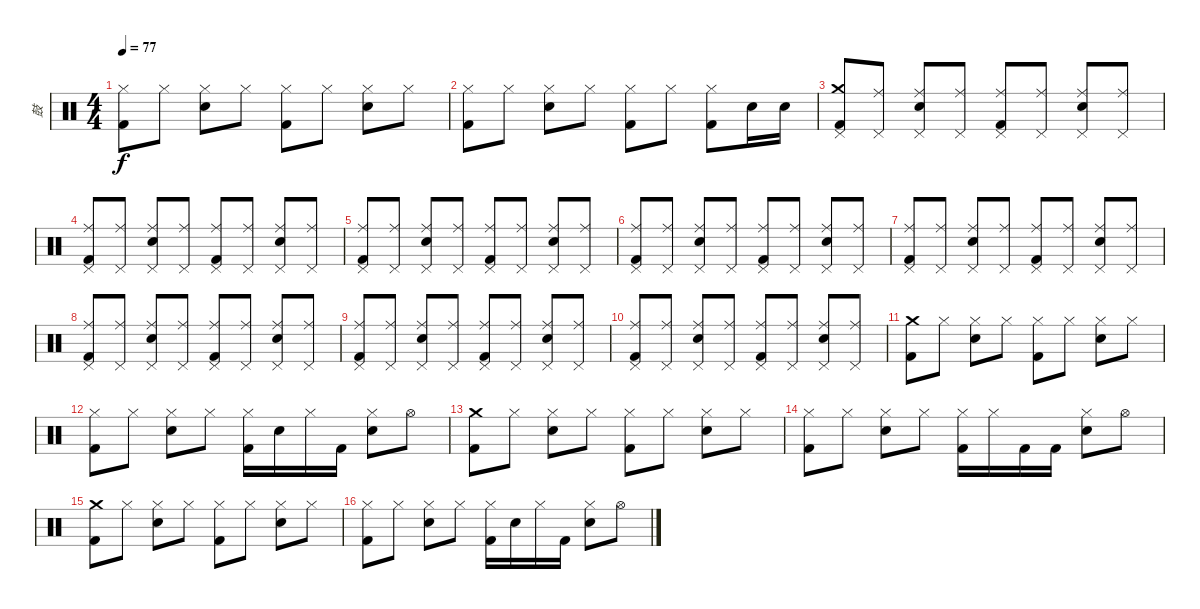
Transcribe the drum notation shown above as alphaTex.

\track ("鼓" "鼓") {instrument percussion}
\staff {score}
\articulation defaults
\ts (4 4)
\tempo 77
\clef neutral
\ks c
("Hi-Hat (closed)" "Kick (hit) 2").8{dy f} "Hi-Hat (closed)".8 ("Hi-Hat (closed)" "Snare (hit) 2").8 "Hi-Hat (closed)".8 ("Hi-Hat (closed)" "Kick (hit) 2").8 "Hi-Hat (closed)".8 ("Hi-Hat (closed)" "Snare (hit) 2").8 "Hi-Hat (closed)".8 |
("Hi-Hat (closed)" "Kick (hit) 2").8 "Hi-Hat (closed)".8 ("Hi-Hat (closed)" "Snare (hit) 2").8 "Hi-Hat (closed)".8 ("Hi-Hat (closed)" "Kick (hit) 2").8 "Hi-Hat (closed)".8 ("Hi-Hat (closed)" "Kick (hit) 2").8 "Snare (hit) 2".16 "Snare (hit) 2".16 |
("Crash medium (hit)" "Pedal Hi-Hat (hit)" "Kick (hit) 2").8 ("Ride (middle)" "Pedal Hi-Hat (hit)").8 ("Ride (middle)" "Pedal Hi-Hat (hit)" "Snare (hit) 2").8 ("Ride (middle)" "Pedal Hi-Hat (hit)").8 ("Ride (middle)" "Pedal Hi-Hat (hit)" "Kick (hit) 2").8 ("Ride (middle)" "Pedal Hi-Hat (hit)").8 ("Ride (middle)" "Pedal Hi-Hat (hit)" "Snare (hit) 2").8 ("Ride (middle)" "Pedal Hi-Hat (hit)").8 |
("Ride (middle)" "Pedal Hi-Hat (hit)" "Kick (hit) 2").8 ("Ride (middle)" "Pedal Hi-Hat (hit)").8 ("Ride (middle)" "Pedal Hi-Hat (hit)" "Snare (hit) 2").8 ("Ride (middle)" "Pedal Hi-Hat (hit)").8 ("Ride (middle)" "Pedal Hi-Hat (hit)" "Kick (hit) 2").8 ("Ride (middle)" "Pedal Hi-Hat (hit)").8 ("Ride (middle)" "Pedal Hi-Hat (hit)" "Snare (hit) 2").8 ("Ride (middle)" "Pedal Hi-Hat (hit)").8 |
("Ride (middle)" "Pedal Hi-Hat (hit)" "Kick (hit) 2").8 ("Ride (middle)" "Pedal Hi-Hat (hit)").8 ("Ride (middle)" "Pedal Hi-Hat (hit)" "Snare (hit) 2").8 ("Ride (middle)" "Pedal Hi-Hat (hit)").8 ("Ride (middle)" "Pedal Hi-Hat (hit)" "Kick (hit) 2").8 ("Ride (middle)" "Pedal Hi-Hat (hit)").8 ("Ride (middle)" "Pedal Hi-Hat (hit)" "Snare (hit) 2").8 ("Ride (middle)" "Pedal Hi-Hat (hit)").8 |
("Ride (middle)" "Pedal Hi-Hat (hit)" "Kick (hit) 2").8 ("Ride (middle)" "Pedal Hi-Hat (hit)").8 ("Ride (middle)" "Pedal Hi-Hat (hit)" "Snare (hit) 2").8 ("Ride (middle)" "Pedal Hi-Hat (hit)").8 ("Ride (middle)" "Pedal Hi-Hat (hit)" "Kick (hit) 2").8 ("Ride (middle)" "Pedal Hi-Hat (hit)").8 ("Ride (middle)" "Pedal Hi-Hat (hit)" "Snare (hit) 2").8 ("Ride (middle)" "Pedal Hi-Hat (hit)").8 |
("Ride (middle)" "Pedal Hi-Hat (hit)" "Kick (hit) 2").8 ("Ride (middle)" "Pedal Hi-Hat (hit)").8 ("Ride (middle)" "Pedal Hi-Hat (hit)" "Snare (hit) 2").8 ("Ride (middle)" "Pedal Hi-Hat (hit)").8 ("Ride (middle)" "Pedal Hi-Hat (hit)" "Kick (hit) 2").8 ("Ride (middle)" "Pedal Hi-Hat (hit)").8 ("Ride (middle)" "Pedal Hi-Hat (hit)" "Snare (hit) 2").8 ("Ride (middle)" "Pedal Hi-Hat (hit)").8 |
("Ride (middle)" "Pedal Hi-Hat (hit)" "Kick (hit) 2").8 ("Ride (middle)" "Pedal Hi-Hat (hit)").8 ("Ride (middle)" "Pedal Hi-Hat (hit)" "Snare (hit) 2").8 ("Ride (middle)" "Pedal Hi-Hat (hit)").8 ("Ride (middle)" "Pedal Hi-Hat (hit)" "Kick (hit) 2").8 ("Ride (middle)" "Pedal Hi-Hat (hit)").8 ("Ride (middle)" "Pedal Hi-Hat (hit)" "Snare (hit) 2").8 ("Ride (middle)" "Pedal Hi-Hat (hit)").8 |
("Ride (middle)" "Pedal Hi-Hat (hit)" "Kick (hit) 2").8 ("Ride (middle)" "Pedal Hi-Hat (hit)").8 ("Ride (middle)" "Pedal Hi-Hat (hit)" "Snare (hit) 2").8 ("Ride (middle)" "Pedal Hi-Hat (hit)").8 ("Ride (middle)" "Pedal Hi-Hat (hit)" "Kick (hit) 2").8 ("Ride (middle)" "Pedal Hi-Hat (hit)").8 ("Ride (middle)" "Pedal Hi-Hat (hit)" "Snare (hit) 2").8 ("Ride (middle)" "Pedal Hi-Hat (hit)").8 |
("Ride (middle)" "Pedal Hi-Hat (hit)" "Kick (hit) 2").8 ("Ride (middle)" "Pedal Hi-Hat (hit)").8 ("Ride (middle)" "Pedal Hi-Hat (hit)" "Snare (hit) 2").8 ("Ride (middle)" "Pedal Hi-Hat (hit)").8 ("Ride (middle)" "Pedal Hi-Hat (hit)" "Kick (hit) 2").8 ("Ride (middle)" "Pedal Hi-Hat (hit)").8 ("Ride (middle)" "Pedal Hi-Hat (hit)" "Snare (hit) 2").8 ("Ride (middle)" "Pedal Hi-Hat (hit)").8 |
("Crash medium (hit)" "Kick (hit) 2").8 "Hi-Hat (closed)".8 ("Hi-Hat (closed)" "Snare (hit) 2").8 "Hi-Hat (closed)".8 ("Hi-Hat (closed)" "Kick (hit) 2").8 "Hi-Hat (closed)".8 ("Hi-Hat (closed)" "Snare (hit) 2").8 "Hi-Hat (closed)".8 |
("Hi-Hat (closed)" "Kick (hit) 2").8 "Hi-Hat (closed)".8 ("Hi-Hat (closed)" "Snare (hit) 2").8 "Hi-Hat (closed)".8 ("Hi-Hat (closed)" "Kick (hit) 2").16 "Snare (hit) 2".16 "Hi-Hat (closed)".16 "Kick (hit) 2".16 ("Hi-Hat (closed)" "Snare (hit) 2").8 "Hi-Hat (open)".8 |
("Crash medium (hit)" "Kick (hit) 2").8 "Hi-Hat (closed)".8 ("Hi-Hat (closed)" "Snare (hit) 2").8 "Hi-Hat (closed)".8 ("Hi-Hat (closed)" "Kick (hit) 2").8 "Hi-Hat (closed)".8 ("Hi-Hat (closed)" "Snare (hit) 2").8 "Hi-Hat (closed)".8 |
("Hi-Hat (closed)" "Kick (hit) 2").8 "Hi-Hat (closed)".8 ("Hi-Hat (closed)" "Snare (hit) 2").8 "Hi-Hat (closed)".8 ("Hi-Hat (closed)" "Kick (hit) 2").16 "Hi-Hat (closed)".16 "Kick (hit) 2".16 "Kick (hit) 2".16 ("Hi-Hat (closed)" "Snare (hit) 2").8 "Hi-Hat (open)".8 |
("Crash medium (hit)" "Kick (hit) 2").8 "Hi-Hat (closed)".8 ("Hi-Hat (closed)" "Snare (hit) 2").8 "Hi-Hat (closed)".8 ("Hi-Hat (closed)" "Kick (hit) 2").8 "Hi-Hat (closed)".8 ("Hi-Hat (closed)" "Snare (hit) 2").8 "Hi-Hat (closed)".8 |
("Hi-Hat (closed)" "Kick (hit) 2").8 "Hi-Hat (closed)".8 ("Hi-Hat (closed)" "Snare (hit) 2").8 "Hi-Hat (closed)".8 ("Hi-Hat (closed)" "Kick (hit) 2").16 "Snare (hit) 2".16 "Hi-Hat (closed)".16 "Kick (hit) 2".16 ("Hi-Hat (closed)" "Snare (hit) 2").8 "Hi-Hat (open)".8
